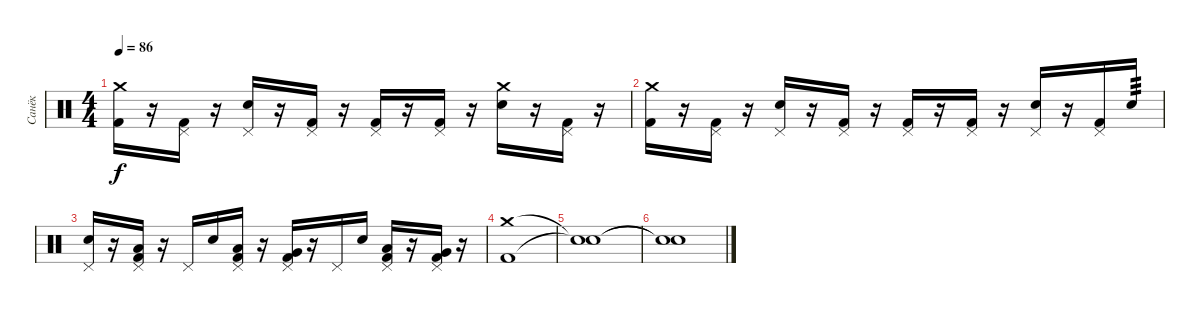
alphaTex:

\track ("Санёк" "Санёк") {instrument percussion}
\staff {score}
\articulation defaults
\ts (4 4)
\tempo 86
\clef neutral
\ks c
("Crash medium (hit)" "Kick (hit) 2").16{dy f} r.16 ("Pedal Hi-Hat (hit)" "Kick (hit) 2").16 r.16 ("Pedal Hi-Hat (hit)" "Electric Snare (hit)").16 r.16 ("Pedal Hi-Hat (hit)" "Kick (hit) 2").16 r.16 ("Pedal Hi-Hat (hit)" "Kick (hit) 2").16 r.16 ("Pedal Hi-Hat (hit)" "Kick (hit) 2").16 r.16 ("Crash medium (hit)" "Electric Snare (hit)").16 r.16 ("Pedal Hi-Hat (hit)" "Kick (hit) 2").16 r.16 |
("Crash medium (hit)" "Kick (hit) 2").16 r.16 ("Pedal Hi-Hat (hit)" "Kick (hit) 2").16 r.16 ("Pedal Hi-Hat (hit)" "Electric Snare (hit)").16 r.16 ("Pedal Hi-Hat (hit)" "Kick (hit) 2").16 r.16 ("Pedal Hi-Hat (hit)" "Kick (hit) 2").16 r.16 ("Pedal Hi-Hat (hit)" "Kick (hit) 2").16 r.16 ("Pedal Hi-Hat (hit)" "Electric Snare (hit)").16 r.16 ("Pedal Hi-Hat (hit)" "Kick (hit) 2").16 "Electric Snare (hit)".16{tp 3} |
("Pedal Hi-Hat (hit)" "Electric Snare (hit)").16 r.16 ("Pedal Hi-Hat (hit)" "Low Tom (hit)" "Kick (hit) 2").16 r.16 "Pedal Hi-Hat (hit)".16 "Electric Snare (hit)".16 ("Pedal Hi-Hat (hit)" "Low Tom (hit)" "Kick (hit) 2").16 r.16 ("Pedal Hi-Hat (hit)" "Very Low Tom (hit)" "Kick (hit) 2").16 r.16 "Pedal Hi-Hat (hit)".16 "Electric Snare (hit)".16 ("Pedal Hi-Hat (hit)" "Low Tom (hit)" "Kick (hit) 2").16 r.16 ("Pedal Hi-Hat (hit)" "Very Low Tom (hit)" "Kick (hit) 2").16 r.16 |
("Crash medium (hit)" "Kick (hit) 2").1 |
("Snare (hit)"{t} "Snare (hit)"{t}).1 |
("Snare (hit)"{t} "Snare (hit)"{t}).1
